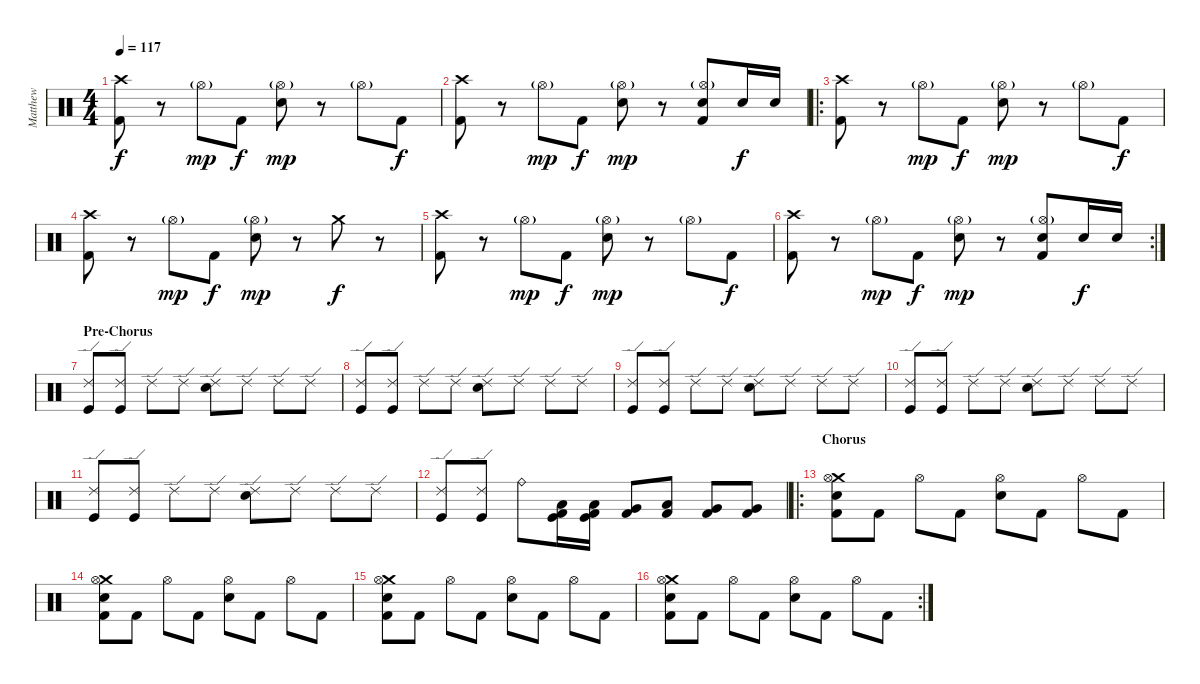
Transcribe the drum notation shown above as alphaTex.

\track ("Matthew" "Matthew") {instrument percussion}
\staff {score}
\articulation defaults
\ts (4 4)
\tempo 117
\clef neutral
\ks c
("Crash high (hit)" "Kick (hit) 2").8{dy f} r.8 "Hi-Hat (open)"{g}.8{dy mp} "Kick (hit) 2".8{dy f} ("Hi-Hat (open)"{g} "Electric Snare (hit)").8{dy mp} r.8 "Hi-Hat (open)"{g}.8 "Kick (hit) 2".8{dy f} |
("Crash high (hit)" "Kick (hit) 2").8 r.8 "Hi-Hat (open)"{g}.8{dy mp} "Kick (hit) 2".8{dy f} ("Hi-Hat (open)"{g} "Electric Snare (hit)").8{dy mp} r.8 ("Hi-Hat (open)"{g} "Electric Snare (hit)" "Kick (hit) 2").8 "Electric Snare (hit)".16{dy f} "Electric Snare (hit)".16 |
\ro
("Crash high (hit)" "Kick (hit) 2").8 r.8 "Hi-Hat (open)"{g}.8{dy mp} "Kick (hit) 2".8{dy f} ("Hi-Hat (open)"{g} "Electric Snare (hit)").8{dy mp} r.8 "Hi-Hat (open)"{g}.8 "Kick (hit) 2".8{dy f} |
("Crash high (hit)" "Kick (hit) 2").8 r.8 "Hi-Hat (open)"{g}.8{dy mp} "Kick (hit) 2".8{dy f} ("Hi-Hat (open)"{g} "Electric Snare (hit)").8{dy mp} r.8 "Crash medium (hit)".8{dy f} r.8 |
("Crash high (hit)" "Kick (hit) 2").8 r.8 "Hi-Hat (open)"{g}.8{dy mp} "Kick (hit) 2".8{dy f} ("Hi-Hat (open)"{g} "Electric Snare (hit)").8{dy mp} r.8 "Hi-Hat (open)"{g}.8 "Kick (hit) 2".8{dy f} |
\rc 2
("Crash high (hit)" "Kick (hit) 2").8 r.8 "Hi-Hat (open)"{g}.8{dy mp} "Kick (hit) 2".8{dy f} ("Hi-Hat (open)"{g} "Electric Snare (hit)").8{dy mp} r.8 ("Hi-Hat (open)"{g} "Electric Snare (hit)" "Kick (hit) 2").8 "Electric Snare (hit)".16{dy f} "Electric Snare (hit)".16 |
\section ("" "Pre-Chorus")
("Ride (edge) 2" "Kick (hit)").8 ("Ride (edge) 2" "Kick (hit)").8 "Ride (edge) 2".8 "Ride (edge) 2".8 ("Ride (edge) 2" "Electric Snare (hit)").8 "Ride (edge) 2".8 "Ride (edge) 2".8 "Ride (edge) 2".8 |
("Ride (edge) 2" "Kick (hit)").8 ("Ride (edge) 2" "Kick (hit)").8 "Ride (edge) 2".8 "Ride (edge) 2".8 ("Ride (edge) 2" "Electric Snare (hit)").8 "Ride (edge) 2".8 "Ride (edge) 2".8 "Ride (edge) 2".8 |
("Ride (edge) 2" "Kick (hit)").8 ("Ride (edge) 2" "Kick (hit)").8 "Ride (edge) 2".8 "Ride (edge) 2".8 ("Ride (edge) 2" "Electric Snare (hit)").8 "Ride (edge) 2".8 "Ride (edge) 2".8 "Ride (edge) 2".8 |
("Ride (edge) 2" "Kick (hit)").8 ("Ride (edge) 2" "Kick (hit)").8 "Ride (edge) 2".8 "Ride (edge) 2".8 ("Ride (edge) 2" "Electric Snare (hit)").8 "Ride (edge) 2".8 "Ride (edge) 2".8 "Ride (edge) 2".8 |
("Ride (edge) 2" "Kick (hit)").8 ("Ride (edge) 2" "Kick (hit)").8 "Ride (edge) 2".8 "Ride (edge) 2".8 ("Ride (edge) 2" "Electric Snare (hit)").8 "Ride (edge) 2".8 "Ride (edge) 2".8 "Ride (edge) 2".8 |
("Ride (edge) 2" "Kick (hit)").8 ("Ride (edge) 2" "Kick (hit)").8 "Ride (bell)".8 ("Low Floor Tom (hit)" "Kick (hit) 2" "Kick (hit)").16 ("Low Floor Tom (hit)" "Kick (hit) 2" "Kick (hit)").16 ("Very Low Tom (hit)" "Kick (hit) 2").8 ("Low Tom (hit)" "Kick (hit) 2").8 ("Very Low Tom (hit)" "Kick (hit) 2").8 ("Very Low Tom (hit)" "Kick (hit) 2").8 |
\ro
\section ("" "Chorus")
("Crash medium (hit)" "Hi-Hat (open)" "Electric Snare (hit)" "Kick (hit) 2").8 "Kick (hit) 2".8 "Hi-Hat (open)".8 "Kick (hit) 2".8 ("Hi-Hat (open)" "Electric Snare (hit)").8 "Kick (hit) 2".8 "Hi-Hat (open)".8 "Kick (hit) 2".8 |
("Crash medium (hit)" "Hi-Hat (open)" "Electric Snare (hit)" "Kick (hit) 2").8 "Kick (hit) 2".8 "Hi-Hat (open)".8 "Kick (hit) 2".8 ("Hi-Hat (open)" "Electric Snare (hit)").8 "Kick (hit) 2".8 "Hi-Hat (open)".8 "Kick (hit) 2".8 |
("Crash medium (hit)" "Hi-Hat (open)" "Electric Snare (hit)" "Kick (hit) 2").8 "Kick (hit) 2".8 "Hi-Hat (open)".8 "Kick (hit) 2".8 ("Hi-Hat (open)" "Electric Snare (hit)").8 "Kick (hit) 2".8 "Hi-Hat (open)".8 "Kick (hit) 2".8 |
\rc 2
("Crash medium (hit)" "Hi-Hat (open)" "Electric Snare (hit)" "Kick (hit) 2").8 "Kick (hit) 2".8 "Hi-Hat (open)".8 "Kick (hit) 2".8 ("Hi-Hat (open)" "Electric Snare (hit)").8 "Kick (hit) 2".8 "Hi-Hat (open)".8 "Kick (hit) 2".8
